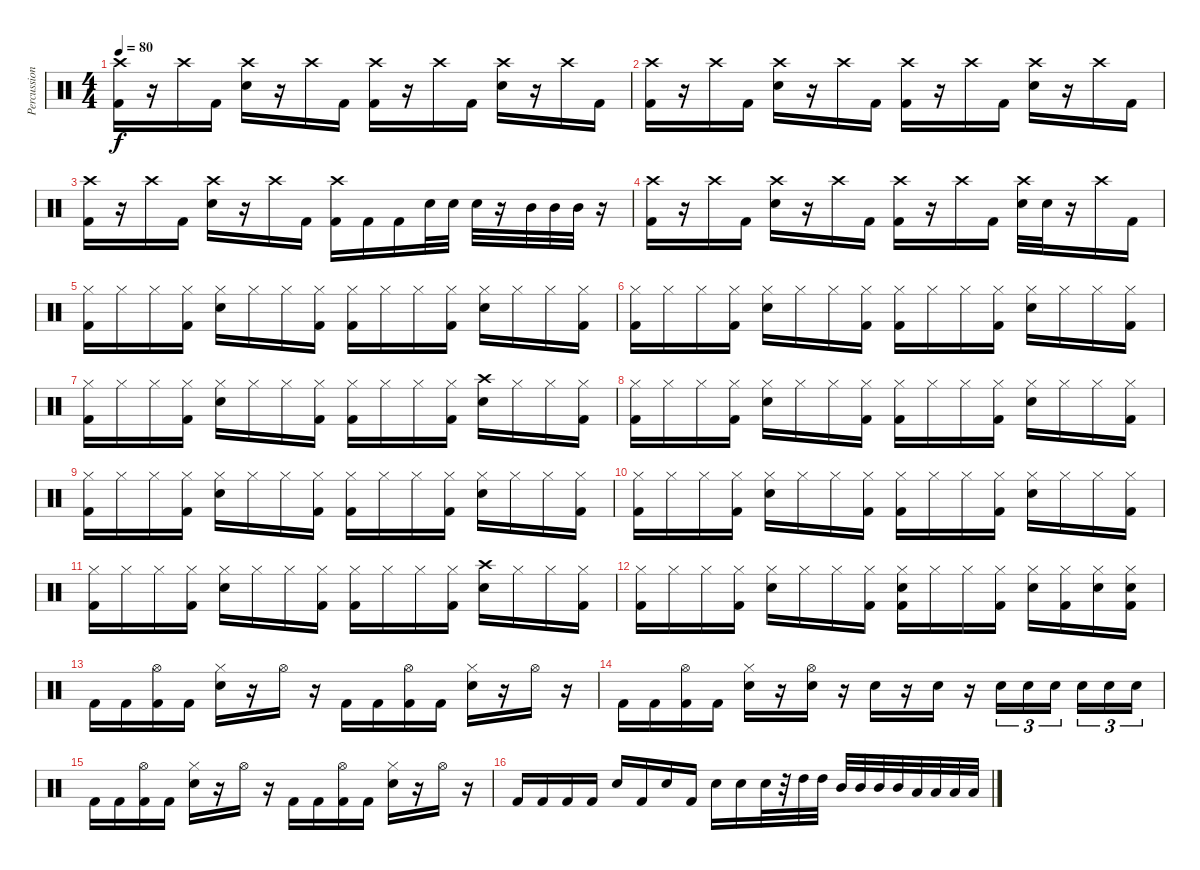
\track ("Percussion" "Percussion") {instrument percussion}
\staff {score}
\articulation defaults
\ts (4 4)
\tempo 80
\clef neutral
\ks c
("Crash high (hit)" "Kick (hit) 2").16{dy f} r.16 "Crash high (hit)".16 "Kick (hit) 2".16 ("Crash high (hit)" "Electric Snare (hit)").16 r.16 "Crash high (hit)".16 "Kick (hit) 2".16 ("Crash high (hit)" "Kick (hit) 2").16 r.16 "Crash high (hit)".16 "Kick (hit) 2".16 ("Crash high (hit)" "Electric Snare (hit)").16 r.16 "Crash high (hit)".16 "Kick (hit) 2".16 |
("Crash high (hit)" "Kick (hit) 2").16 r.16 "Crash high (hit)".16 "Kick (hit) 2".16 ("Crash high (hit)" "Electric Snare (hit)").16 r.16 "Crash high (hit)".16 "Kick (hit) 2".16 ("Crash high (hit)" "Kick (hit) 2").16 r.16 "Crash high (hit)".16 "Kick (hit) 2".16 ("Crash high (hit)" "Electric Snare (hit)").16 r.16 "Crash high (hit)".16 "Kick (hit) 2".16 |
("Crash high (hit)" "Kick (hit) 2").16 r.16 "Crash high (hit)".16 "Kick (hit) 2".16 ("Crash high (hit)" "Electric Snare (hit)").16 r.16 "Crash high (hit)".16 "Kick (hit) 2".16 ("Crash high (hit)" "Kick (hit) 2").16 "Kick (hit) 2".16 "Kick (hit) 2".16 "Electric Snare (hit)".32 "Electric Snare (hit)".32 "Electric Snare (hit)".32 r.16 "Mid Tom (hit)".32 "Mid Tom (hit)".32 "Mid Tom (hit)".32 r.16 |
("Crash high (hit)" "Kick (hit) 2").16 r.16 "Crash high (hit)".16 "Kick (hit) 2".16 ("Crash high (hit)" "Electric Snare (hit)").16 r.16 "Crash high (hit)".16 "Kick (hit) 2".16 ("Crash high (hit)" "Kick (hit) 2").16 r.16 "Crash high (hit)".16 "Kick (hit) 2".16 ("Crash high (hit)" "Electric Snare (hit)").32 "Electric Snare (hit)".32 r.16 "Crash high (hit)".16 "Kick (hit) 2".16 |
("Hi-Hat (closed)" "Kick (hit) 2").16 "Hi-Hat (closed)".16 "Hi-Hat (closed)".16 ("Hi-Hat (closed)" "Kick (hit) 2").16 ("Hi-Hat (closed)" "Electric Snare (hit)").16 "Hi-Hat (closed)".16 "Hi-Hat (closed)".16 ("Hi-Hat (closed)" "Kick (hit) 2").16 ("Hi-Hat (closed)" "Kick (hit) 2").16 "Hi-Hat (closed)".16 "Hi-Hat (closed)".16 ("Hi-Hat (closed)" "Kick (hit) 2").16 ("Hi-Hat (closed)" "Electric Snare (hit)").16 "Hi-Hat (closed)".16 "Hi-Hat (closed)".16 ("Hi-Hat (closed)" "Kick (hit) 2").16 |
("Hi-Hat (closed)" "Kick (hit) 2").16 "Hi-Hat (closed)".16 "Hi-Hat (closed)".16 ("Hi-Hat (closed)" "Kick (hit) 2").16 ("Hi-Hat (closed)" "Electric Snare (hit)").16 "Hi-Hat (closed)".16 "Hi-Hat (closed)".16 ("Hi-Hat (closed)" "Kick (hit) 2").16 ("Hi-Hat (closed)" "Kick (hit) 2").16 "Hi-Hat (closed)".16 "Hi-Hat (closed)".16 ("Hi-Hat (closed)" "Kick (hit) 2").16 ("Hi-Hat (closed)" "Electric Snare (hit)").16 "Hi-Hat (closed)".16 "Hi-Hat (closed)".16 ("Hi-Hat (closed)" "Kick (hit) 2").16 |
("Hi-Hat (closed)" "Kick (hit) 2").16 "Hi-Hat (closed)".16 "Hi-Hat (closed)".16 ("Hi-Hat (closed)" "Kick (hit) 2").16 ("Hi-Hat (closed)" "Electric Snare (hit)").16 "Hi-Hat (closed)".16 "Hi-Hat (closed)".16 ("Hi-Hat (closed)" "Kick (hit) 2").16 ("Hi-Hat (closed)" "Kick (hit) 2").16 "Hi-Hat (closed)".16 "Hi-Hat (closed)".16 ("Hi-Hat (closed)" "Kick (hit) 2").16 ("Crash high (hit)" "Electric Snare (hit)").16 "Hi-Hat (closed)".16 "Hi-Hat (closed)".16 ("Hi-Hat (closed)" "Kick (hit) 2").16 |
("Hi-Hat (closed)" "Kick (hit) 2").16 "Hi-Hat (closed)".16 "Hi-Hat (closed)".16 ("Hi-Hat (closed)" "Kick (hit) 2").16 ("Hi-Hat (closed)" "Electric Snare (hit)").16 "Hi-Hat (closed)".16 "Hi-Hat (closed)".16 ("Hi-Hat (closed)" "Kick (hit) 2").16 ("Hi-Hat (closed)" "Kick (hit) 2").16 "Hi-Hat (closed)".16 "Hi-Hat (closed)".16 ("Hi-Hat (closed)" "Kick (hit) 2").16 ("Hi-Hat (closed)" "Electric Snare (hit)").16 "Hi-Hat (closed)".16 "Hi-Hat (closed)".16 ("Hi-Hat (closed)" "Kick (hit) 2").16 |
("Hi-Hat (closed)" "Kick (hit) 2").16 "Hi-Hat (closed)".16 "Hi-Hat (closed)".16 ("Hi-Hat (closed)" "Kick (hit) 2").16 ("Hi-Hat (closed)" "Electric Snare (hit)").16 "Hi-Hat (closed)".16 "Hi-Hat (closed)".16 ("Hi-Hat (closed)" "Kick (hit) 2").16 ("Hi-Hat (closed)" "Kick (hit) 2").16 "Hi-Hat (closed)".16 "Hi-Hat (closed)".16 ("Hi-Hat (closed)" "Kick (hit) 2").16 ("Hi-Hat (closed)" "Electric Snare (hit)").16 "Hi-Hat (closed)".16 "Hi-Hat (closed)".16 ("Hi-Hat (closed)" "Kick (hit) 2").16 |
("Hi-Hat (closed)" "Kick (hit) 2").16 "Hi-Hat (closed)".16 "Hi-Hat (closed)".16 ("Hi-Hat (closed)" "Kick (hit) 2").16 ("Hi-Hat (closed)" "Electric Snare (hit)").16 "Hi-Hat (closed)".16 "Hi-Hat (closed)".16 ("Hi-Hat (closed)" "Kick (hit) 2").16 ("Hi-Hat (closed)" "Kick (hit) 2").16 "Hi-Hat (closed)".16 "Hi-Hat (closed)".16 ("Hi-Hat (closed)" "Kick (hit) 2").16 ("Hi-Hat (closed)" "Electric Snare (hit)").16 "Hi-Hat (closed)".16 "Hi-Hat (closed)".16 ("Hi-Hat (closed)" "Kick (hit) 2").16 |
("Hi-Hat (closed)" "Kick (hit) 2").16 "Hi-Hat (closed)".16 "Hi-Hat (closed)".16 ("Hi-Hat (closed)" "Kick (hit) 2").16 ("Hi-Hat (closed)" "Electric Snare (hit)").16 "Hi-Hat (closed)".16 "Hi-Hat (closed)".16 ("Hi-Hat (closed)" "Kick (hit) 2").16 ("Hi-Hat (closed)" "Kick (hit) 2").16 "Hi-Hat (closed)".16 "Hi-Hat (closed)".16 ("Hi-Hat (closed)" "Kick (hit) 2").16 ("Crash high (hit)" "Electric Snare (hit)").16 "Hi-Hat (closed)".16 "Hi-Hat (closed)".16 ("Hi-Hat (closed)" "Kick (hit) 2").16 |
("Hi-Hat (closed)" "Kick (hit) 2").16 "Hi-Hat (closed)".16 "Hi-Hat (closed)".16 ("Hi-Hat (closed)" "Kick (hit) 2").16 ("Hi-Hat (closed)" "Electric Snare (hit)").16 "Hi-Hat (closed)".16 "Hi-Hat (closed)".16 ("Hi-Hat (closed)" "Kick (hit) 2").16 ("Hi-Hat (closed)" "Electric Snare (hit)" "Kick (hit) 2").16 "Hi-Hat (closed)".16 "Hi-Hat (closed)".16 ("Hi-Hat (closed)" "Kick (hit) 2").16 ("Hi-Hat (closed)" "Electric Snare (hit)").16 ("Hi-Hat (closed)" "Kick (hit) 2").16 ("Hi-Hat (closed)" "Electric Snare (hit)").16 ("Hi-Hat (closed)" "Electric Snare (hit)" "Kick (hit) 2").16 |
"Kick (hit) 2".16 "Kick (hit) 2".16 ("Hi-Hat (open)" "Kick (hit) 2").16 "Kick (hit) 2".16 ("Hi-Hat (closed)" "Electric Snare (hit)").16 r.16 "Hi-Hat (open)".16 r.16 "Kick (hit) 2".16 "Kick (hit) 2".16 ("Hi-Hat (open)" "Kick (hit) 2").16 "Kick (hit) 2".16 ("Hi-Hat (closed)" "Electric Snare (hit)").16 r.16 "Hi-Hat (open)".16 r.16 |
"Kick (hit) 2".16 "Kick (hit) 2".16 ("Hi-Hat (open)" "Kick (hit) 2").16 "Kick (hit) 2".16 ("Hi-Hat (closed)" "Electric Snare (hit)").16 r.16 ("Hi-Hat (open)" "Electric Snare (hit)").16 r.16 "Electric Snare (hit)".16 r.16 "Electric Snare (hit)".16 r.16 "Electric Snare (hit)".16{tu (3 2)} "Electric Snare (hit)".16{tu (3 2)} "Electric Snare (hit)".16{tu (3 2) beam splitsecondary} "Electric Snare (hit)".16{tu (3 2)} "Electric Snare (hit)".16{tu (3 2)} "Electric Snare (hit)".16{tu (3 2)} |
"Kick (hit) 2".16 "Kick (hit) 2".16 ("Hi-Hat (open)" "Kick (hit) 2").16 "Kick (hit) 2".16 ("Hi-Hat (closed)" "Electric Snare (hit)").16 r.16 "Hi-Hat (open)".16 r.16 "Kick (hit) 2".16 "Kick (hit) 2".16 ("Hi-Hat (open)" "Kick (hit) 2").16 "Kick (hit) 2".16 ("Hi-Hat (closed)" "Electric Snare (hit)").16 r.16 "Hi-Hat (open)".16 r.16 |
"Kick (hit) 2".16 "Kick (hit) 2".16 "Kick (hit) 2".16 "Kick (hit) 2".16 "Electric Snare (hit)".16 "Kick (hit) 2".16 "Electric Snare (hit)".16 "Kick (hit) 2".16 "Electric Snare (hit)".16 "Electric Snare (hit)".16 "Electric Snare (hit)".32 r.32 "High Tom (hit)".32 "High Tom (hit)".32 "Mid Tom (hit)".32 "Mid Tom (hit)".32 "Mid Tom (hit)".32 "Mid Tom (hit)".32 "Low Tom (hit)".32 "Low Tom (hit)".32 "Low Tom (hit)".32 "Low Tom (hit)".32
